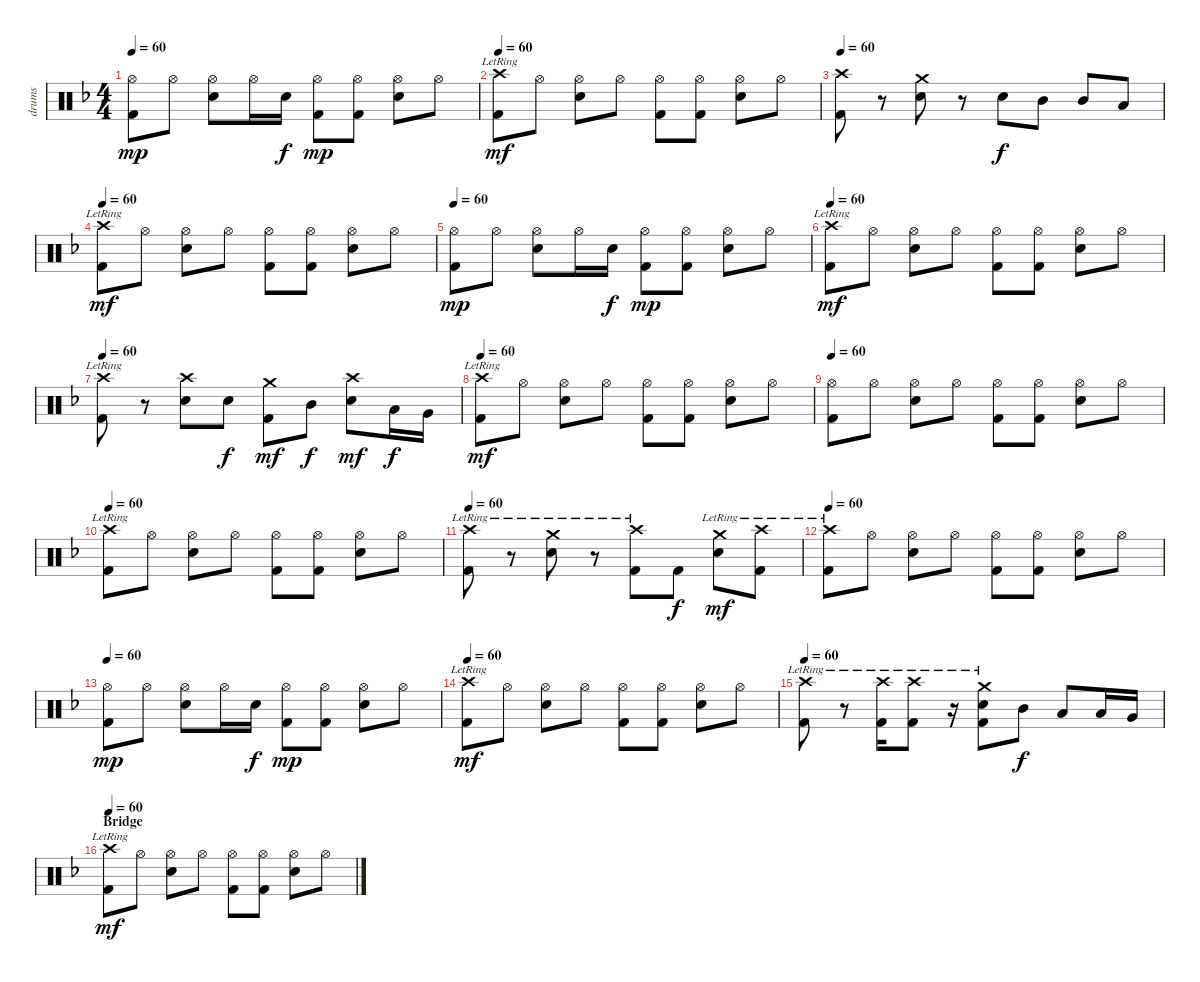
\track ("drums" "drums") {instrument percussion}
\staff {score}
\articulation defaults
\ts (4 4)
\tempo 60
\clef neutral
\ks dminor
("Hi-Hat (open)" "Kick (hit) 2").8{dy mp} "Hi-Hat (open)".8 ("Hi-Hat (open)" "Electric Snare (hit)").8 "Hi-Hat (open)".16 "Electric Snare (hit)".16{dy f} ("Hi-Hat (open)" "Kick (hit) 2").8{dy mp} ("Hi-Hat (open)" "Kick (hit) 2").8 ("Hi-Hat (open)" "Electric Snare (hit)").8 "Hi-Hat (open)".8 |
\tempo 60
("Crash high (hit)"{lr} "Kick (hit) 2").8{dy mf} "Hi-Hat (open)".8 ("Hi-Hat (open)" "Electric Snare (hit)").8 "Hi-Hat (open)".8 ("Hi-Hat (open)" "Kick (hit) 2").8 ("Hi-Hat (open)" "Kick (hit) 2").8 ("Hi-Hat (open)" "Electric Snare (hit)").8 "Hi-Hat (open)".8 |
\tempo 60
("Crash high (hit)" "Kick (hit) 2").8 r.8 ("Crash medium (hit)" "Electric Snare (hit)").8 r.8 "Electric Snare (hit)".8{dy f} "Mid Tom (hit)".8 "Mid Tom (hit)".8 "Low Tom (hit)".8 |
\tempo 60
("Crash high (hit)"{lr} "Kick (hit) 2").8{dy mf} "Hi-Hat (open)".8 ("Hi-Hat (open)" "Electric Snare (hit)").8 "Hi-Hat (open)".8 ("Hi-Hat (open)" "Kick (hit) 2").8 ("Hi-Hat (open)" "Kick (hit) 2").8 ("Hi-Hat (open)" "Electric Snare (hit)").8 "Hi-Hat (open)".8 |
\tempo 60
("Hi-Hat (open)" "Kick (hit) 2").8{dy mp} "Hi-Hat (open)".8 ("Hi-Hat (open)" "Electric Snare (hit)").8 "Hi-Hat (open)".16 "Electric Snare (hit)".16{dy f} ("Hi-Hat (open)" "Kick (hit) 2").8{dy mp} ("Hi-Hat (open)" "Kick (hit) 2").8 ("Hi-Hat (open)" "Electric Snare (hit)").8 "Hi-Hat (open)".8 |
\tempo 60
("Crash high (hit)"{lr} "Kick (hit) 2").8{dy mf} "Hi-Hat (open)".8 ("Hi-Hat (open)" "Electric Snare (hit)").8 "Hi-Hat (open)".8 ("Hi-Hat (open)" "Kick (hit) 2").8 ("Hi-Hat (open)" "Kick (hit) 2").8 ("Hi-Hat (open)" "Electric Snare (hit)").8 "Hi-Hat (open)".8 |
\tempo 60
("Crash high (hit)"{lr} "Kick (hit) 2").8 r.8 ("Crash high (hit)" "Electric Snare (hit)").8 "Electric Snare (hit)".8{dy f} ("Crash medium (hit)" "Kick (hit) 2").8{dy mf} "Mid Tom (hit)".8{dy f} ("Crash high (hit)" "Electric Snare (hit)").8{dy mf} "Low Tom (hit)".16{dy f} "Very Low Tom (hit)".16 |
\tempo 60
("Crash high (hit)"{lr} "Kick (hit) 2").8{dy mf} "Hi-Hat (open)".8 ("Hi-Hat (open)" "Electric Snare (hit)").8 "Hi-Hat (open)".8 ("Hi-Hat (open)" "Kick (hit) 2").8 ("Hi-Hat (open)" "Kick (hit) 2").8 ("Hi-Hat (open)" "Electric Snare (hit)").8 "Hi-Hat (open)".8 |
\tempo 60
("Hi-Hat (open)" "Kick (hit) 2").8 "Hi-Hat (open)".8 ("Hi-Hat (open)" "Electric Snare (hit)").8 "Hi-Hat (open)".8 ("Hi-Hat (open)" "Kick (hit) 2").8 ("Hi-Hat (open)" "Kick (hit) 2").8 ("Hi-Hat (open)" "Electric Snare (hit)").8 "Hi-Hat (open)".8 |
\tempo 60
("Crash high (hit)"{lr} "Kick (hit) 2").8 "Hi-Hat (open)".8 ("Hi-Hat (open)" "Electric Snare (hit)").8 "Hi-Hat (open)".8 ("Hi-Hat (open)" "Kick (hit) 2").8 ("Hi-Hat (open)" "Kick (hit) 2").8 ("Hi-Hat (open)" "Electric Snare (hit)").8 "Hi-Hat (open)".8 |
\tempo 60
("Crash high (hit)"{lr} "Kick (hit) 2").8 r.8 ("Crash medium (hit)"{lr} "Electric Snare (hit)").8 r.8 ("Crash high (hit)"{lr} "Kick (hit) 2").8 "Kick (hit) 2".8{dy f} ("Crash medium (hit)"{lr} "Electric Snare (hit)").8{dy mf} ("Crash high (hit)"{lr} "Kick (hit) 2").8 |
\tempo 60
("Crash high (hit)"{lr} "Kick (hit) 2").8 "Hi-Hat (open)".8 ("Hi-Hat (open)" "Electric Snare (hit)").8 "Hi-Hat (open)".8 ("Hi-Hat (open)" "Kick (hit) 2").8 ("Hi-Hat (open)" "Kick (hit) 2").8 ("Hi-Hat (open)" "Electric Snare (hit)").8 "Hi-Hat (open)".8 |
\tempo 60
("Hi-Hat (open)" "Kick (hit) 2").8{dy mp} "Hi-Hat (open)".8 ("Hi-Hat (open)" "Electric Snare (hit)").8 "Hi-Hat (open)".16 "Electric Snare (hit)".16{dy f} ("Hi-Hat (open)" "Kick (hit) 2").8{dy mp} ("Hi-Hat (open)" "Kick (hit) 2").8 ("Hi-Hat (open)" "Electric Snare (hit)").8 "Hi-Hat (open)".8 |
\tempo 60
("Crash high (hit)"{lr} "Kick (hit) 2").8{dy mf} "Hi-Hat (open)".8 ("Hi-Hat (open)" "Electric Snare (hit)").8 "Hi-Hat (open)".8 ("Hi-Hat (open)" "Kick (hit) 2").8 ("Hi-Hat (open)" "Kick (hit) 2").8 ("Hi-Hat (open)" "Electric Snare (hit)").8 "Hi-Hat (open)".8 |
\tempo 60
("Crash high (hit)"{lr} "Kick (hit) 2").8 r.8 ("Crash high (hit)"{lr} "Kick (hit) 2").16 ("Crash high (hit)"{lr} "Kick (hit) 2").8 r.16 ("Crash medium (hit)"{lr} "Electric Snare (hit)" "Kick (hit) 2").8 "Mid Tom (hit)".8{dy f} "Low Tom (hit)".8 "Low Tom (hit)".16 "Very Low Tom (hit)".16 |
\section ("" "Bridge")
\tempo 60
("Crash high (hit)"{lr} "Kick (hit) 2").8{dy mf} "Hi-Hat (open)".8 ("Hi-Hat (open)" "Electric Snare (hit)").8 "Hi-Hat (open)".8 ("Hi-Hat (open)" "Kick (hit) 2").8 ("Hi-Hat (open)" "Kick (hit) 2").8 ("Hi-Hat (open)" "Electric Snare (hit)").8 "Hi-Hat (open)".8
